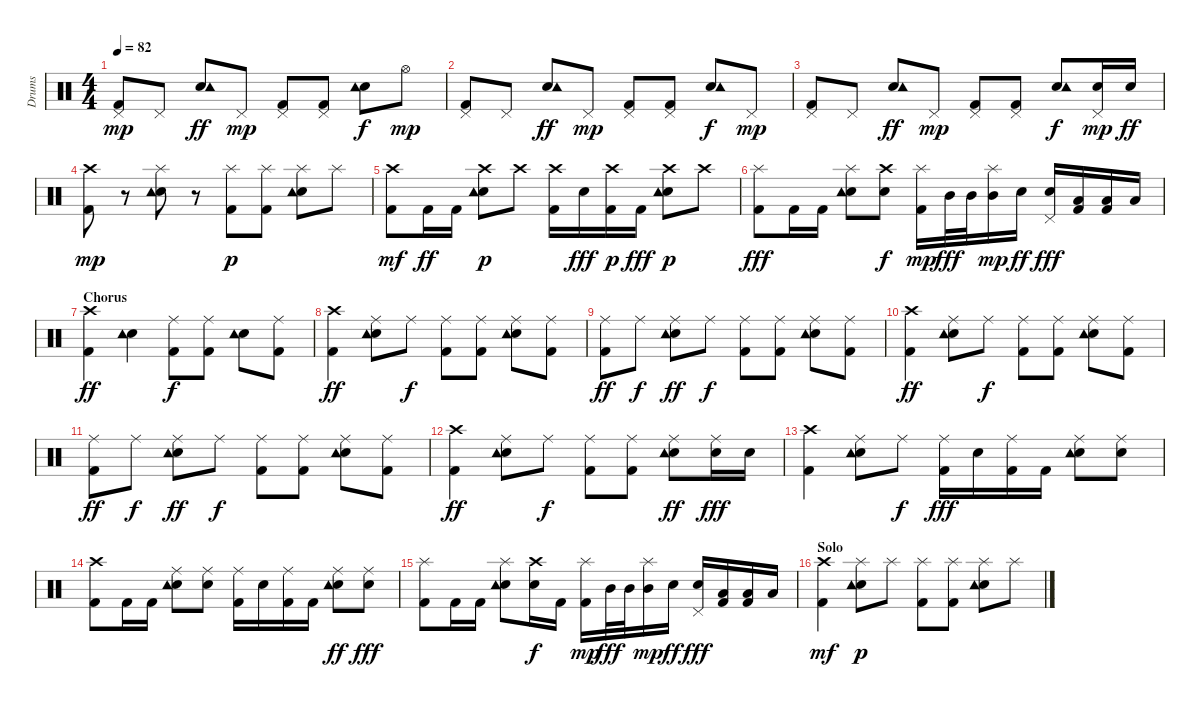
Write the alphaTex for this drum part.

\track ("Drums" "Drums") {instrument percussion}
\staff {score}
\articulation defaults
\ts (4 4)
\tempo 82
\clef neutral
\ks c
("Kick (hit) 2" "Pedal Hi-Hat (hit)").8{dy mp} "Pedal Hi-Hat (hit)".8 ("Electric Snare (hit)" "Tambourine (hit)").8{dy ff} "Pedal Hi-Hat (hit)".8{dy mp} ("Kick (hit) 2" "Pedal Hi-Hat (hit)").8 ("Kick (hit) 2" "Pedal Hi-Hat (hit)").8 ("Electric Snare (hit)" "Tambourine (hit)").8{dy f} "Hi-Hat (open)".8{dy mp} |
("Kick (hit) 2" "Pedal Hi-Hat (hit)").8 "Pedal Hi-Hat (hit)".8 ("Electric Snare (hit)" "Tambourine (hit)").8{dy ff} "Pedal Hi-Hat (hit)".8{dy mp} ("Kick (hit) 2" "Pedal Hi-Hat (hit)").8 ("Kick (hit) 2" "Pedal Hi-Hat (hit)").8 ("Electric Snare (hit)" "Tambourine (hit)").8{dy f} "Pedal Hi-Hat (hit)".8{dy mp} |
("Kick (hit) 2" "Pedal Hi-Hat (hit)").8 "Pedal Hi-Hat (hit)".8 ("Electric Snare (hit)" "Tambourine (hit)").8{dy ff} "Pedal Hi-Hat (hit)".8{dy mp} ("Kick (hit) 2" "Pedal Hi-Hat (hit)").8 ("Kick (hit) 2" "Pedal Hi-Hat (hit)").8 ("Electric Snare (hit)" "Tambourine (hit)").8{dy f} ("Electric Snare (hit)" "Pedal Hi-Hat (hit)").16{dy mp} "Electric Snare (hit)".16{dy ff} |
("Kick (hit) 2" "Crash high (hit)").8{dy mp} r.8 ("Electric Snare (hit)" "Tambourine (hit)" "Splash (hit)").8 r.8 ("Kick (hit) 2" "Splash (hit)").8{dy p} ("Kick (hit) 2" "Splash (hit)").8 ("Electric Snare (hit)" "Tambourine (hit)" "Splash (hit)").8 "Splash (hit)".8 |
("Kick (hit) 2" "Crash high (hit)").8{dy mf} "Kick (hit) 2".16{dy ff} "Kick (hit) 2".16 ("Electric Snare (hit)" "Tambourine (hit)" "Crash high (hit)").8{dy p} "Crash high (hit)".8 ("Kick (hit) 2" "Crash high (hit)").16 "Electric Snare (hit)".16{dy fff} ("Kick (hit) 2" "Crash high (hit)").16{dy p} "Kick (hit) 2".16{dy fff} ("Electric Snare (hit)" "Tambourine (hit)" "Crash high (hit)").8{dy p} "Crash high (hit)".8 |
("Kick (hit) 2" "Splash (hit)").8{dy fff} "Kick (hit) 2".16 "Kick (hit) 2".16 ("Electric Snare (hit)" "Tambourine (hit)" "Splash (hit)").8 ("Electric Snare (hit)" "Crash high (hit)").8{dy f} ("Kick (hit) 2" "Splash (hit)").16{dy mp} "Mid Tom (hit)".32{dy fff} "Mid Tom (hit)".32 ("Mid Tom (hit)" "Splash (hit)").16{dy mp} "Electric Snare (hit)".16{dy ff} ("Electric Snare (hit)" "Pedal Hi-Hat (hit)").16{dy fff} ("Low Tom (hit)" "Kick (hit) 2").16 ("Low Tom (hit)" "Kick (hit) 2").16 "Low Tom (hit)".16 |
\section ("" "Chorus")
("Kick (hit) 2" "Crash high (hit)").4{dy ff} ("Electric Snare (hit)" "Tambourine (hit)").4 ("Kick (hit) 2" "Ride (middle)").8{dy f} ("Kick (hit) 2" "Ride (middle)").8 ("Electric Snare (hit)" "Tambourine (hit)").8 ("Kick (hit) 2" "Ride (middle)").8 |
("Kick (hit) 2" "Crash high (hit)").4{dy ff} ("Electric Snare (hit)" "Tambourine (hit)" "Ride (middle)").8 "Ride (middle)".8{dy f} ("Kick (hit) 2" "Ride (middle)").8 ("Kick (hit) 2" "Ride (middle)").8 ("Electric Snare (hit)" "Tambourine (hit)" "Ride (middle)").8 ("Kick (hit) 2" "Ride (middle)").8 |
("Kick (hit) 2" "Ride (middle)").8{dy ff} "Ride (middle)".8{dy f} ("Electric Snare (hit)" "Tambourine (hit)" "Ride (middle)").8{dy ff} "Ride (middle)".8{dy f} ("Kick (hit) 2" "Ride (middle)").8 ("Kick (hit) 2" "Ride (middle)").8 ("Electric Snare (hit)" "Tambourine (hit)" "Ride (middle)").8 ("Kick (hit) 2" "Ride (middle)").8 |
("Kick (hit) 2" "Crash high (hit)").4{dy ff} ("Electric Snare (hit)" "Tambourine (hit)" "Ride (middle)").8 "Ride (middle)".8{dy f} ("Kick (hit) 2" "Ride (middle)").8 ("Kick (hit) 2" "Ride (middle)").8 ("Electric Snare (hit)" "Tambourine (hit)" "Ride (middle)").8 ("Kick (hit) 2" "Ride (middle)").8 |
("Kick (hit) 2" "Ride (middle)").8{dy ff} "Ride (middle)".8{dy f} ("Electric Snare (hit)" "Tambourine (hit)" "Ride (middle)").8{dy ff} "Ride (middle)".8{dy f} ("Kick (hit) 2" "Ride (middle)").8 ("Kick (hit) 2" "Ride (middle)").8 ("Electric Snare (hit)" "Tambourine (hit)" "Ride (middle)").8 ("Kick (hit) 2" "Ride (middle)").8 |
("Kick (hit) 2" "Crash high (hit)").4{dy ff} ("Electric Snare (hit)" "Tambourine (hit)" "Ride (middle)").8 "Ride (middle)".8{dy f} ("Kick (hit) 2" "Ride (middle)").8 ("Kick (hit) 2" "Ride (middle)").8 ("Electric Snare (hit)" "Tambourine (hit)" "Ride (middle)").8{dy ff} ("Electric Snare (hit)" "Ride (middle)").16{dy fff} "Electric Snare (hit)".16 |
("Kick (hit) 2" "Crash high (hit)").4 ("Electric Snare (hit)" "Tambourine (hit)" "Ride (middle)").8 "Ride (middle)".8{dy f} ("Kick (hit) 2" "Ride (middle)").16{dy fff} "Electric Snare (hit)".16 ("Kick (hit) 2" "Ride (middle)").16 "Kick (hit) 2".16 ("Electric Snare (hit)" "Tambourine (hit)" "Ride (middle)").8 ("Electric Snare (hit)" "Ride (middle)").8 |
("Kick (hit) 2" "Crash high (hit)").8 "Kick (hit) 2".16 "Kick (hit) 2".16 ("Electric Snare (hit)" "Tambourine (hit)" "Ride (middle)").8 ("Electric Snare (hit)" "Ride (middle)").8 ("Kick (hit) 2" "Ride (middle)").16 "Electric Snare (hit)".16 ("Kick (hit) 2" "Ride (middle)").16 "Kick (hit) 2".16 ("Electric Snare (hit)" "Tambourine (hit)" "Ride (middle)").8{dy ff} ("Electric Snare (hit)" "Ride (middle)").8{dy fff} |
("Kick (hit) 2" "Splash (hit)").8 "Kick (hit) 2".16 "Kick (hit) 2".16 ("Electric Snare (hit)" "Tambourine (hit)" "Splash (hit)").8 ("Electric Snare (hit)" "Crash high (hit)").16{dy f} "Kick (hit) 2".16 ("Kick (hit) 2" "Splash (hit)").16{dy mp} "Mid Tom (hit)".32{dy fff} "Mid Tom (hit)".32 ("Mid Tom (hit)" "Splash (hit)").16{dy mp} "Electric Snare (hit)".16{dy ff} ("Electric Snare (hit)" "Pedal Hi-Hat (hit)").16{dy fff} ("Low Tom (hit)" "Kick (hit) 2").16 ("Low Tom (hit)" "Kick (hit) 2").16 "Low Tom (hit)".16 |
\section ("" "Solo")
("Kick (hit) 2" "Crash high (hit)").4{dy mf} ("Electric Snare (hit)" "Tambourine (hit)" "Splash (hit)").8{dy p} "Splash (hit)".8 ("Kick (hit) 2" "Splash (hit)").8 ("Kick (hit) 2" "Splash (hit)").8 ("Electric Snare (hit)" "Tambourine (hit)" "Splash (hit)").8 "Splash (hit)".8
